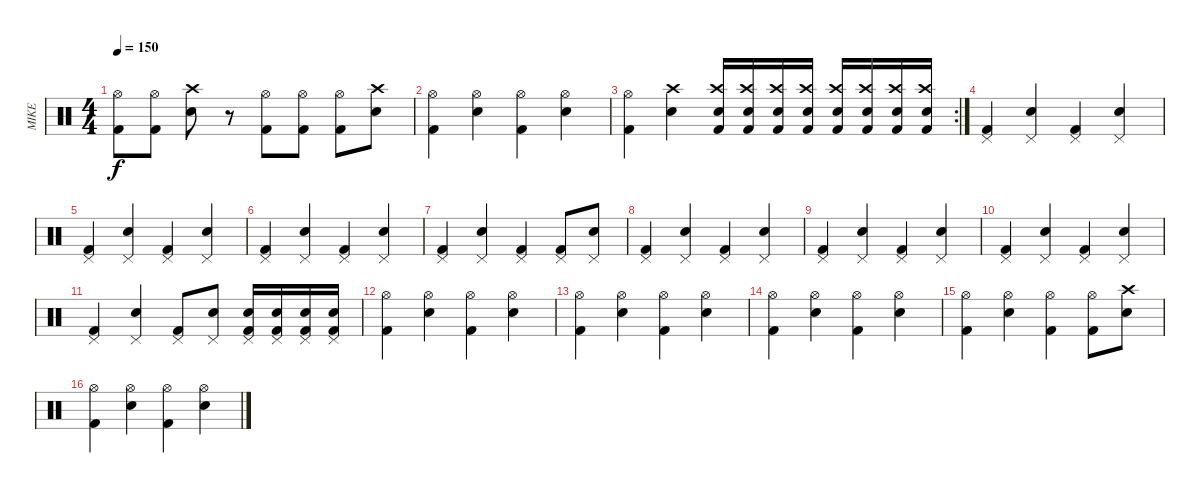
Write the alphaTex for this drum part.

\track ("MIKE" "MIKE") {instrument percussion}
\staff {score}
\articulation defaults
\ts (4 4)
\tempo 150
\clef neutral
\ks c
("Hi-Hat (open)" "Kick (hit) 2").8{dy f} ("Hi-Hat (open)" "Kick (hit) 2").8 ("Crash high (hit)" "Electric Snare (hit)").8 r.8 ("Hi-Hat (open)" "Kick (hit) 2").8 ("Hi-Hat (open)" "Kick (hit) 2").8 ("Hi-Hat (open)" "Kick (hit) 2").8 ("Crash high (hit)" "Electric Snare (hit)").8 |
("Hi-Hat (open)" "Kick (hit) 2").4 ("Hi-Hat (open)" "Electric Snare (hit)").4 ("Hi-Hat (open)" "Kick (hit) 2").4 ("Hi-Hat (open)" "Electric Snare (hit)").4 |
\rc 2
("Hi-Hat (open)" "Kick (hit) 2").4 ("Crash high (hit)" "Electric Snare (hit)").4 ("Crash high (hit)" "Kick (hit) 2" "Electric Snare (hit)").16 ("Crash high (hit)" "Kick (hit) 2" "Electric Snare (hit)").16 ("Crash high (hit)" "Kick (hit) 2" "Electric Snare (hit)").16 ("Crash high (hit)" "Kick (hit) 2" "Electric Snare (hit)").16 ("Crash high (hit)" "Kick (hit) 2" "Electric Snare (hit)").16 ("Crash high (hit)" "Kick (hit) 2" "Electric Snare (hit)").16 ("Crash high (hit)" "Kick (hit) 2" "Electric Snare (hit)").16 ("Crash high (hit)" "Kick (hit) 2" "Electric Snare (hit)").16 |
("Pedal Hi-Hat (hit)" "Kick (hit) 2").4 ("Pedal Hi-Hat (hit)" "Electric Snare (hit)").4 ("Pedal Hi-Hat (hit)" "Kick (hit) 2").4 ("Pedal Hi-Hat (hit)" "Electric Snare (hit)").4 |
("Pedal Hi-Hat (hit)" "Kick (hit) 2").4 ("Pedal Hi-Hat (hit)" "Electric Snare (hit)").4 ("Pedal Hi-Hat (hit)" "Kick (hit) 2").4 ("Pedal Hi-Hat (hit)" "Electric Snare (hit)").4 |
("Pedal Hi-Hat (hit)" "Kick (hit) 2").4 ("Pedal Hi-Hat (hit)" "Electric Snare (hit)").4 ("Pedal Hi-Hat (hit)" "Kick (hit) 2").4 ("Pedal Hi-Hat (hit)" "Electric Snare (hit)").4 |
("Pedal Hi-Hat (hit)" "Kick (hit) 2").4 ("Pedal Hi-Hat (hit)" "Electric Snare (hit)").4 ("Pedal Hi-Hat (hit)" "Kick (hit) 2").4 ("Pedal Hi-Hat (hit)" "Kick (hit) 2").8 ("Pedal Hi-Hat (hit)" "Electric Snare (hit)").8 |
("Pedal Hi-Hat (hit)" "Kick (hit) 2").4 ("Pedal Hi-Hat (hit)" "Electric Snare (hit)").4 ("Pedal Hi-Hat (hit)" "Kick (hit) 2").4 ("Pedal Hi-Hat (hit)" "Electric Snare (hit)").4 |
("Pedal Hi-Hat (hit)" "Kick (hit) 2").4 ("Pedal Hi-Hat (hit)" "Electric Snare (hit)").4 ("Pedal Hi-Hat (hit)" "Kick (hit) 2").4 ("Pedal Hi-Hat (hit)" "Electric Snare (hit)").4 |
("Pedal Hi-Hat (hit)" "Kick (hit) 2").4 ("Pedal Hi-Hat (hit)" "Electric Snare (hit)").4 ("Pedal Hi-Hat (hit)" "Kick (hit) 2").4 ("Pedal Hi-Hat (hit)" "Electric Snare (hit)").4 |
("Pedal Hi-Hat (hit)" "Kick (hit) 2").4 ("Pedal Hi-Hat (hit)" "Electric Snare (hit)").4 ("Pedal Hi-Hat (hit)" "Kick (hit) 2").8 ("Pedal Hi-Hat (hit)" "Electric Snare (hit)").8 ("Kick (hit) 2" "Pedal Hi-Hat (hit)" "Electric Snare (hit)").16 ("Kick (hit) 2" "Pedal Hi-Hat (hit)" "Electric Snare (hit)").16 ("Kick (hit) 2" "Pedal Hi-Hat (hit)" "Electric Snare (hit)").16 ("Kick (hit) 2" "Pedal Hi-Hat (hit)" "Electric Snare (hit)").16 |
("Hi-Hat (open)" "Kick (hit) 2").4 ("Hi-Hat (open)" "Electric Snare (hit)").4 ("Hi-Hat (open)" "Kick (hit) 2").4 ("Hi-Hat (open)" "Electric Snare (hit)").4 |
("Hi-Hat (open)" "Kick (hit) 2").4 ("Hi-Hat (open)" "Electric Snare (hit)").4 ("Hi-Hat (open)" "Kick (hit) 2").4 ("Hi-Hat (open)" "Electric Snare (hit)").4 |
("Hi-Hat (open)" "Kick (hit) 2").4 ("Hi-Hat (open)" "Electric Snare (hit)").4 ("Hi-Hat (open)" "Kick (hit) 2").4 ("Hi-Hat (open)" "Electric Snare (hit)").4 |
("Hi-Hat (open)" "Kick (hit) 2").4 ("Hi-Hat (open)" "Electric Snare (hit)").4 ("Hi-Hat (open)" "Kick (hit) 2").4 ("Hi-Hat (open)" "Kick (hit) 2").8 ("Crash high (hit)" "Electric Snare (hit)").8 |
("Hi-Hat (open)" "Kick (hit) 2").4 ("Hi-Hat (open)" "Electric Snare (hit)").4 ("Hi-Hat (open)" "Kick (hit) 2").4 ("Hi-Hat (open)" "Electric Snare (hit)").4
